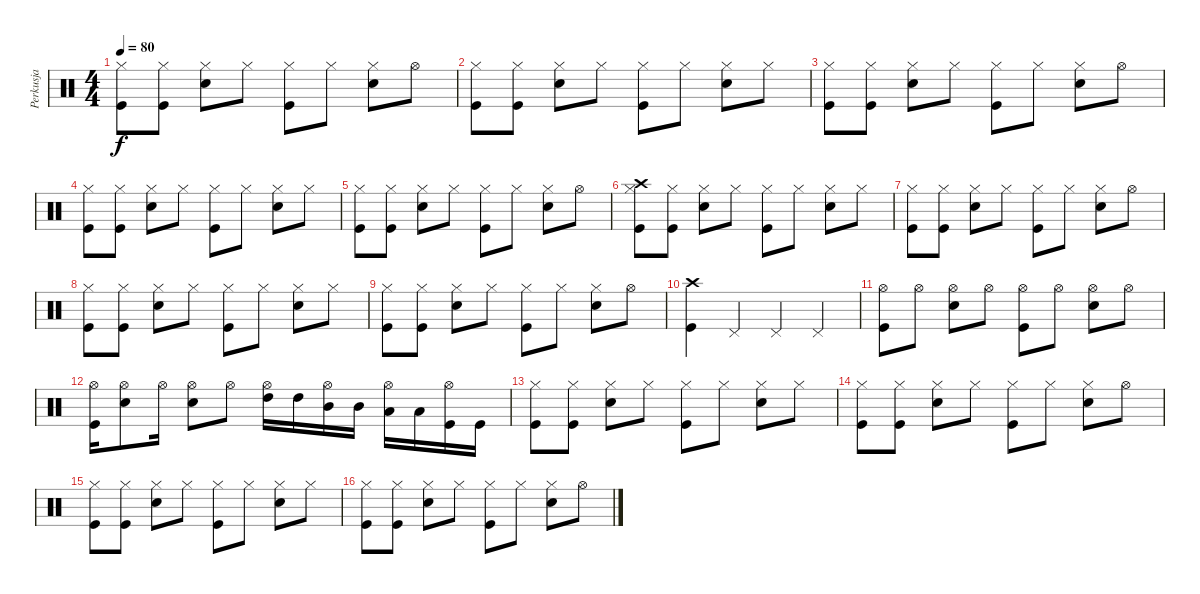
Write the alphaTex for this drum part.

\track ("Perkusja" "Perkusja") {instrument percussion}
\staff {score}
\articulation defaults
\ts (4 4)
\tempo 80
\clef neutral
\ks c
("Hi-Hat (closed)" "Kick (hit)").8{dy f} ("Hi-Hat (closed)" "Kick (hit)").8 ("Hi-Hat (closed)" "Metronome (bell)").8 "Hi-Hat (closed)".8 ("Hi-Hat (closed)" "Kick (hit)").8 "Hi-Hat (closed)".8 ("Hi-Hat (closed)" "Metronome (bell)").8 "Hi-Hat (open)".8 |
("Hi-Hat (closed)" "Kick (hit)").8 ("Hi-Hat (closed)" "Kick (hit)").8 ("Hi-Hat (closed)" "Metronome (bell)").8 "Hi-Hat (closed)".8 ("Hi-Hat (closed)" "Kick (hit)").8 "Hi-Hat (closed)".8 ("Hi-Hat (closed)" "Metronome (bell)").8 "Hi-Hat (closed)".8 |
("Hi-Hat (closed)" "Kick (hit)").8 ("Hi-Hat (closed)" "Kick (hit)").8 ("Hi-Hat (closed)" "Metronome (bell)").8 "Hi-Hat (closed)".8 ("Hi-Hat (closed)" "Kick (hit)").8 "Hi-Hat (closed)".8 ("Hi-Hat (closed)" "Metronome (bell)").8 "Hi-Hat (open)".8 |
("Hi-Hat (closed)" "Kick (hit)").8 ("Hi-Hat (closed)" "Kick (hit)").8 ("Hi-Hat (closed)" "Metronome (bell)").8 "Hi-Hat (closed)".8 ("Hi-Hat (closed)" "Kick (hit)").8 "Hi-Hat (closed)".8 ("Hi-Hat (closed)" "Metronome (bell)").8 "Hi-Hat (closed)".8 |
("Hi-Hat (closed)" "Kick (hit)").8 ("Hi-Hat (closed)" "Kick (hit)").8 ("Hi-Hat (closed)" "Metronome (bell)").8 "Hi-Hat (closed)".8 ("Hi-Hat (closed)" "Kick (hit)").8 "Hi-Hat (closed)".8 ("Hi-Hat (closed)" "Metronome (bell)").8 "Hi-Hat (open)".8 |
("Hi-Hat (closed)" "Crash high (hit)" "Kick (hit)").8 ("Hi-Hat (closed)" "Kick (hit)").8 ("Hi-Hat (closed)" "Metronome (bell)").8 "Hi-Hat (closed)".8 ("Hi-Hat (closed)" "Kick (hit)").8 "Hi-Hat (closed)".8 ("Hi-Hat (closed)" "Metronome (bell)").8 "Hi-Hat (closed)".8 |
("Hi-Hat (closed)" "Kick (hit)").8 ("Hi-Hat (closed)" "Kick (hit)").8 ("Hi-Hat (closed)" "Metronome (bell)").8 "Hi-Hat (closed)".8 ("Hi-Hat (closed)" "Kick (hit)").8 "Hi-Hat (closed)".8 ("Hi-Hat (closed)" "Metronome (bell)").8 "Hi-Hat (open)".8 |
("Hi-Hat (closed)" "Kick (hit)").8 ("Hi-Hat (closed)" "Kick (hit)").8 ("Hi-Hat (closed)" "Metronome (bell)").8 "Hi-Hat (closed)".8 ("Hi-Hat (closed)" "Kick (hit)").8 "Hi-Hat (closed)".8 ("Hi-Hat (closed)" "Metronome (bell)").8 "Hi-Hat (closed)".8 |
("Hi-Hat (closed)" "Kick (hit)").8 ("Hi-Hat (closed)" "Kick (hit)").8 ("Hi-Hat (closed)" "Metronome (bell)").8 "Hi-Hat (closed)".8 ("Hi-Hat (closed)" "Kick (hit)").8 "Hi-Hat (closed)".8 ("Hi-Hat (closed)" "Metronome (bell)").8 "Hi-Hat (open)".8 |
("Crash high (hit)" "Kick (hit)").4 "Pedal Hi-Hat (hit)".4 "Pedal Hi-Hat (hit)".4 "Pedal Hi-Hat (hit)".4 |
("Hi-Hat (open)" "Kick (hit)").8 "Hi-Hat (open)".8 ("Hi-Hat (open)" "Metronome (bell)").8 "Hi-Hat (open)".8 ("Hi-Hat (open)" "Kick (hit)").8 "Hi-Hat (open)".8 ("Hi-Hat (open)" "Metronome (bell)").8 "Hi-Hat (open)".8 |
("Hi-Hat (open)" "Kick (hit)").16 ("Hi-Hat (open)" "Metronome (bell)").8 "Hi-Hat (open)".16 ("Hi-Hat (open)" "Metronome (bell)").8 "Hi-Hat (open)".8 ("Hi-Hat (open)" "High Tom (hit)").16 "High Tom (hit)".16 ("Hi-Hat (open)" "Mid Tom (hit)").16 "Mid Tom (hit)".16 ("Hi-Hat (open)" "Low Tom (hit)").16 "Low Tom (hit)".16 ("Hi-Hat (open)" "Kick (hit)").16 "Kick (hit)".16 |
("Hi-Hat (closed)" "Kick (hit)").8 ("Hi-Hat (closed)" "Kick (hit)").8 ("Hi-Hat (closed)" "Metronome (bell)").8 "Hi-Hat (closed)".8 ("Hi-Hat (closed)" "Kick (hit)").8 "Hi-Hat (closed)".8 ("Hi-Hat (closed)" "Metronome (bell)").8 "Hi-Hat (closed)".8 |
("Hi-Hat (closed)" "Kick (hit)").8 ("Hi-Hat (closed)" "Kick (hit)").8 ("Hi-Hat (closed)" "Metronome (bell)").8 "Hi-Hat (closed)".8 ("Hi-Hat (closed)" "Kick (hit)").8 "Hi-Hat (closed)".8 ("Hi-Hat (closed)" "Metronome (bell)").8 "Hi-Hat (open)".8 |
("Hi-Hat (closed)" "Kick (hit)").8 ("Hi-Hat (closed)" "Kick (hit)").8 ("Hi-Hat (closed)" "Metronome (bell)").8 "Hi-Hat (closed)".8 ("Hi-Hat (closed)" "Kick (hit)").8 "Hi-Hat (closed)".8 ("Hi-Hat (closed)" "Metronome (bell)").8 "Hi-Hat (closed)".8 |
("Hi-Hat (closed)" "Kick (hit)").8 ("Hi-Hat (closed)" "Kick (hit)").8 ("Hi-Hat (closed)" "Metronome (bell)").8 "Hi-Hat (closed)".8 ("Hi-Hat (closed)" "Kick (hit)").8 "Hi-Hat (closed)".8 ("Hi-Hat (closed)" "Metronome (bell)").8 "Hi-Hat (open)".8
